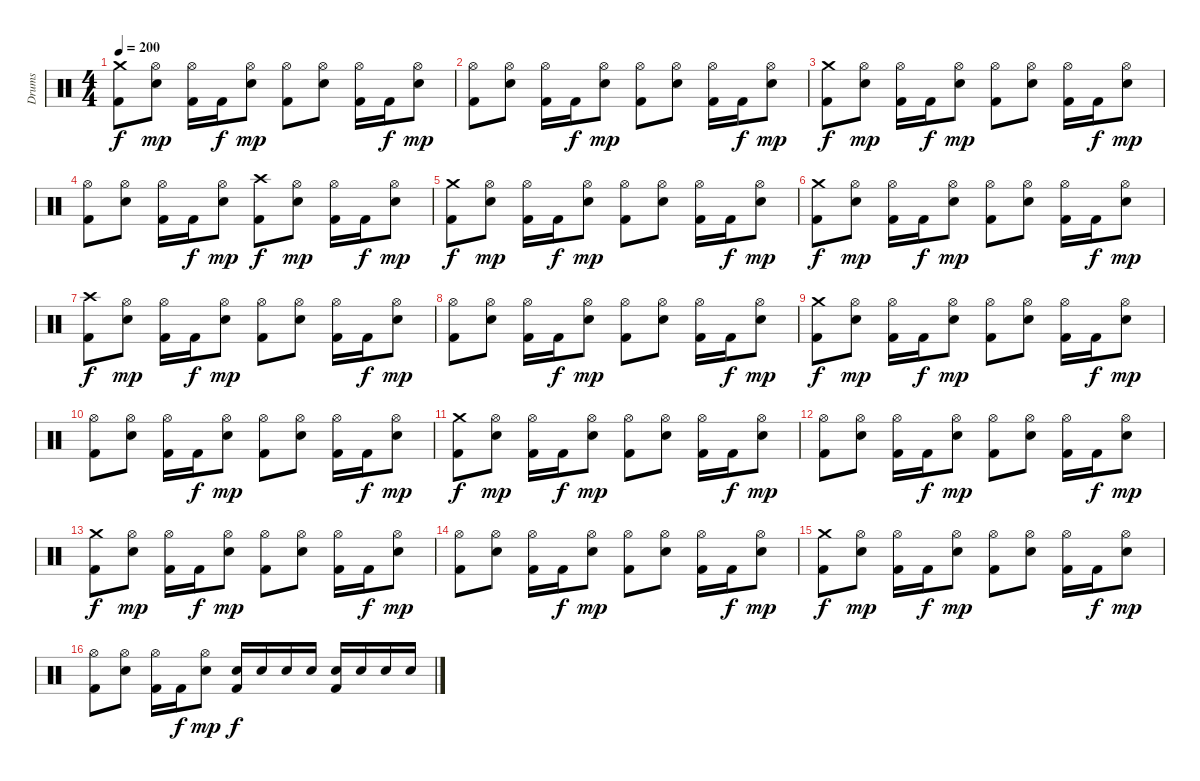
\track ("Drums" "Drums") {instrument percussion}
\staff {score}
\articulation defaults
\ts (4 4)
\tempo 200
\clef neutral
\ks c
("Crash medium (hit)" "Kick (hit) 2").8{dy f} ("Hi-Hat (open)" "Snare (hit) 2").8{dy mp} ("Hi-Hat (open)" "Kick (hit) 2").16 "Kick (hit) 2".16{dy f} ("Hi-Hat (open)" "Snare (hit) 2").8{dy mp} ("Hi-Hat (open)" "Kick (hit) 2").8 ("Hi-Hat (open)" "Snare (hit) 2").8 ("Hi-Hat (open)" "Kick (hit) 2").16 "Kick (hit) 2".16{dy f} ("Hi-Hat (open)" "Snare (hit) 2").8{dy mp} |
("Hi-Hat (open)" "Kick (hit) 2").8 ("Hi-Hat (open)" "Snare (hit) 2").8 ("Hi-Hat (open)" "Kick (hit) 2").16 "Kick (hit) 2".16{dy f} ("Hi-Hat (open)" "Snare (hit) 2").8{dy mp} ("Hi-Hat (open)" "Kick (hit) 2").8 ("Hi-Hat (open)" "Snare (hit) 2").8 ("Hi-Hat (open)" "Kick (hit) 2").16 "Kick (hit) 2".16{dy f} ("Hi-Hat (open)" "Snare (hit) 2").8{dy mp} |
("Crash medium (hit)" "Kick (hit) 2").8{dy f} ("Hi-Hat (open)" "Snare (hit) 2").8{dy mp} ("Hi-Hat (open)" "Kick (hit) 2").16 "Kick (hit) 2".16{dy f} ("Hi-Hat (open)" "Snare (hit) 2").8{dy mp} ("Hi-Hat (open)" "Kick (hit) 2").8 ("Hi-Hat (open)" "Snare (hit) 2").8 ("Hi-Hat (open)" "Kick (hit) 2").16 "Kick (hit) 2".16{dy f} ("Hi-Hat (open)" "Snare (hit) 2").8{dy mp} |
("Hi-Hat (open)" "Kick (hit) 2").8 ("Hi-Hat (open)" "Snare (hit) 2").8 ("Hi-Hat (open)" "Kick (hit) 2").16 "Kick (hit) 2".16{dy f} ("Hi-Hat (open)" "Snare (hit) 2").8{dy mp} ("Crash high (hit)" "Kick (hit) 2").8{dy f} ("Hi-Hat (open)" "Snare (hit) 2").8{dy mp} ("Hi-Hat (open)" "Kick (hit) 2").16 "Kick (hit) 2".16{dy f} ("Hi-Hat (open)" "Snare (hit) 2").8{dy mp} |
("Crash medium (hit)" "Kick (hit) 2").8{dy f} ("Hi-Hat (open)" "Snare (hit) 2").8{dy mp} ("Hi-Hat (open)" "Kick (hit) 2").16 "Kick (hit) 2".16{dy f} ("Hi-Hat (open)" "Snare (hit) 2").8{dy mp} ("Hi-Hat (open)" "Kick (hit) 2").8 ("Hi-Hat (open)" "Snare (hit) 2").8 ("Hi-Hat (open)" "Kick (hit) 2").16 "Kick (hit) 2".16{dy f} ("Hi-Hat (open)" "Snare (hit) 2").8{dy mp} |
("Crash medium (hit)" "Kick (hit) 2").8{dy f} ("Hi-Hat (open)" "Snare (hit) 2").8{dy mp} ("Hi-Hat (open)" "Kick (hit) 2").16 "Kick (hit) 2".16{dy f} ("Hi-Hat (open)" "Snare (hit) 2").8{dy mp} ("Hi-Hat (open)" "Kick (hit) 2").8 ("Hi-Hat (open)" "Snare (hit) 2").8 ("Hi-Hat (open)" "Kick (hit) 2").16 "Kick (hit) 2".16{dy f} ("Hi-Hat (open)" "Snare (hit) 2").8{dy mp} |
("Crash high (hit)" "Kick (hit) 2").8{dy f} ("Hi-Hat (open)" "Snare (hit) 2").8{dy mp} ("Hi-Hat (open)" "Kick (hit) 2").16 "Kick (hit) 2".16{dy f} ("Hi-Hat (open)" "Snare (hit) 2").8{dy mp} ("Hi-Hat (open)" "Kick (hit) 2").8 ("Hi-Hat (open)" "Snare (hit) 2").8 ("Hi-Hat (open)" "Kick (hit) 2").16 "Kick (hit) 2".16{dy f} ("Hi-Hat (open)" "Snare (hit) 2").8{dy mp} |
("Hi-Hat (open)" "Kick (hit) 2").8 ("Hi-Hat (open)" "Snare (hit) 2").8 ("Hi-Hat (open)" "Kick (hit) 2").16 "Kick (hit) 2".16{dy f} ("Hi-Hat (open)" "Snare (hit) 2").8{dy mp} ("Hi-Hat (open)" "Kick (hit) 2").8 ("Hi-Hat (open)" "Snare (hit) 2").8 ("Hi-Hat (open)" "Kick (hit) 2").16 "Kick (hit) 2".16{dy f} ("Hi-Hat (open)" "Snare (hit) 2").8{dy mp} |
("Crash medium (hit)" "Kick (hit) 2").8{dy f} ("Hi-Hat (open)" "Snare (hit) 2").8{dy mp} ("Hi-Hat (open)" "Kick (hit) 2").16 "Kick (hit) 2".16{dy f} ("Hi-Hat (open)" "Snare (hit) 2").8{dy mp} ("Hi-Hat (open)" "Kick (hit) 2").8 ("Hi-Hat (open)" "Snare (hit) 2").8 ("Hi-Hat (open)" "Kick (hit) 2").16 "Kick (hit) 2".16{dy f} ("Hi-Hat (open)" "Snare (hit) 2").8{dy mp} |
("Hi-Hat (open)" "Kick (hit) 2").8 ("Hi-Hat (open)" "Snare (hit) 2").8 ("Hi-Hat (open)" "Kick (hit) 2").16 "Kick (hit) 2".16{dy f} ("Hi-Hat (open)" "Snare (hit) 2").8{dy mp} ("Hi-Hat (open)" "Kick (hit) 2").8 ("Hi-Hat (open)" "Snare (hit) 2").8 ("Hi-Hat (open)" "Kick (hit) 2").16 "Kick (hit) 2".16{dy f} ("Hi-Hat (open)" "Snare (hit) 2").8{dy mp} |
("Crash medium (hit)" "Kick (hit) 2").8{dy f} ("Hi-Hat (open)" "Snare (hit) 2").8{dy mp} ("Hi-Hat (open)" "Kick (hit) 2").16 "Kick (hit) 2".16{dy f} ("Hi-Hat (open)" "Snare (hit) 2").8{dy mp} ("Hi-Hat (open)" "Kick (hit) 2").8 ("Hi-Hat (open)" "Snare (hit) 2").8 ("Hi-Hat (open)" "Kick (hit) 2").16 "Kick (hit) 2".16{dy f} ("Hi-Hat (open)" "Snare (hit) 2").8{dy mp} |
("Hi-Hat (open)" "Kick (hit) 2").8 ("Hi-Hat (open)" "Snare (hit) 2").8 ("Hi-Hat (open)" "Kick (hit) 2").16 "Kick (hit) 2".16{dy f} ("Hi-Hat (open)" "Snare (hit) 2").8{dy mp} ("Hi-Hat (open)" "Kick (hit) 2").8 ("Hi-Hat (open)" "Snare (hit) 2").8 ("Hi-Hat (open)" "Kick (hit) 2").16 "Kick (hit) 2".16{dy f} ("Hi-Hat (open)" "Snare (hit) 2").8{dy mp} |
("Crash medium (hit)" "Kick (hit) 2").8{dy f} ("Hi-Hat (open)" "Snare (hit) 2").8{dy mp} ("Hi-Hat (open)" "Kick (hit) 2").16 "Kick (hit) 2".16{dy f} ("Hi-Hat (open)" "Snare (hit) 2").8{dy mp} ("Hi-Hat (open)" "Kick (hit) 2").8 ("Hi-Hat (open)" "Snare (hit) 2").8 ("Hi-Hat (open)" "Kick (hit) 2").16 "Kick (hit) 2".16{dy f} ("Hi-Hat (open)" "Snare (hit) 2").8{dy mp} |
("Hi-Hat (open)" "Kick (hit) 2").8 ("Hi-Hat (open)" "Snare (hit) 2").8 ("Hi-Hat (open)" "Kick (hit) 2").16 "Kick (hit) 2".16{dy f} ("Hi-Hat (open)" "Snare (hit) 2").8{dy mp} ("Hi-Hat (open)" "Kick (hit) 2").8 ("Hi-Hat (open)" "Snare (hit) 2").8 ("Hi-Hat (open)" "Kick (hit) 2").16 "Kick (hit) 2".16{dy f} ("Hi-Hat (open)" "Snare (hit) 2").8{dy mp} |
("Crash medium (hit)" "Kick (hit) 2").8{dy f} ("Hi-Hat (open)" "Snare (hit) 2").8{dy mp} ("Hi-Hat (open)" "Kick (hit) 2").16 "Kick (hit) 2".16{dy f} ("Hi-Hat (open)" "Snare (hit) 2").8{dy mp} ("Hi-Hat (open)" "Kick (hit) 2").8 ("Hi-Hat (open)" "Snare (hit) 2").8 ("Hi-Hat (open)" "Kick (hit) 2").16 "Kick (hit) 2".16{dy f} ("Hi-Hat (open)" "Snare (hit) 2").8{dy mp} |
("Hi-Hat (open)" "Kick (hit) 2").8 ("Hi-Hat (open)" "Snare (hit) 2").8 ("Hi-Hat (open)" "Kick (hit) 2").16 "Kick (hit) 2".16{dy f} ("Hi-Hat (open)" "Snare (hit) 2").8{dy mp} ("Snare (hit) 2" "Kick (hit) 2").16{dy f} "Snare (hit) 2".16 "Snare (hit) 2".16 "Snare (hit) 2".16 ("Snare (hit) 2" "Kick (hit) 2").16 "Snare (hit) 2".16 "Snare (hit) 2".16 "Snare (hit) 2".16
